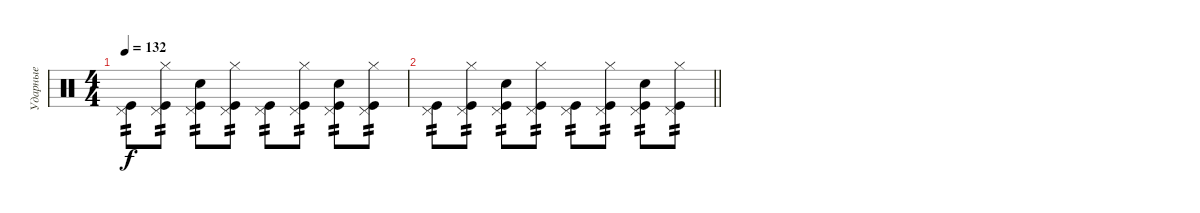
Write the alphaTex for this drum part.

\track ("Ударные" "Ударные") {instrument percussion}
\staff {score}
\articulation defaults
\ts (4 4)
\tempo 132
\clef neutral
\ks c
("Pedal Hi-Hat (hit)" "Kick (hit)").8{tp 2 dy f} ("Pedal Hi-Hat (hit)" "Hi-Hat (closed)" "Kick (hit)").8{tp 2} ("Pedal Hi-Hat (hit)" "Electric Snare (hit)" "Kick (hit)").8{tp 2} ("Pedal Hi-Hat (hit)" "Hi-Hat (closed)" "Kick (hit)").8{tp 2} ("Pedal Hi-Hat (hit)" "Kick (hit)").8{tp 2} ("Pedal Hi-Hat (hit)" "Hi-Hat (closed)" "Kick (hit)").8{tp 2} ("Pedal Hi-Hat (hit)" "Electric Snare (hit)" "Kick (hit)").8{tp 2} ("Pedal Hi-Hat (hit)" "Hi-Hat (closed)" "Kick (hit)").8{tp 2} |
\barLineRight lightlight
("Pedal Hi-Hat (hit)" "Kick (hit)").8{tp 2} ("Pedal Hi-Hat (hit)" "Hi-Hat (closed)" "Kick (hit)").8{tp 2} ("Pedal Hi-Hat (hit)" "Electric Snare (hit)" "Kick (hit)").8{tp 2} ("Pedal Hi-Hat (hit)" "Hi-Hat (closed)" "Kick (hit)").8{tp 2} ("Pedal Hi-Hat (hit)" "Kick (hit)").8{tp 2} ("Pedal Hi-Hat (hit)" "Hi-Hat (closed)" "Kick (hit)").8{tp 2} ("Pedal Hi-Hat (hit)" "Electric Snare (hit)" "Kick (hit)").8{tp 2} ("Pedal Hi-Hat (hit)" "Hi-Hat (closed)" "Kick (hit)").8{tp 2}
